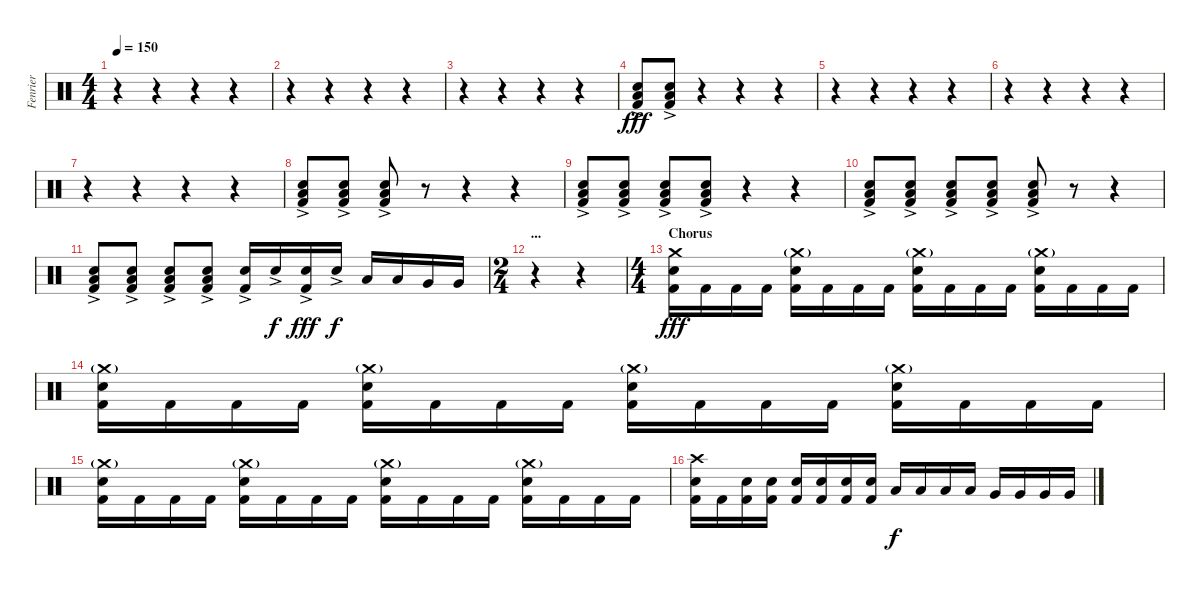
\track ("Fenrier" "Fenrier") {instrument percussion}
\staff {score}
\articulation defaults
\ts (4 4)
\tempo 150
\clef neutral
\ks c
r.4{dy fff} r.4 r.4 r.4 |
r.4 r.4 r.4 r.4 |
r.4 r.4 r.4 r.4 |
("Electric Snare (hit)"{ac} "Low Floor Tom (hit)"{ac} "Kick (hit) 2"{ac}).8 ("Electric Snare (hit)"{ac} "Low Floor Tom (hit)"{ac} "Kick (hit) 2"{ac}).8 r.4 r.4 r.4 |
r.4 r.4 r.4 r.4 |
r.4 r.4 r.4 r.4 |
r.4 r.4 r.4 r.4 |
("Electric Snare (hit)"{ac} "Low Floor Tom (hit)"{ac} "Kick (hit) 2"{ac}).8 ("Electric Snare (hit)"{ac} "Low Floor Tom (hit)"{ac} "Kick (hit) 2"{ac}).8 ("Electric Snare (hit)"{ac} "Low Floor Tom (hit)"{ac} "Kick (hit) 2"{ac}).8 r.8 r.4 r.4 |
("Electric Snare (hit)"{ac} "Low Floor Tom (hit)"{ac} "Kick (hit) 2"{ac}).8 ("Electric Snare (hit)"{ac} "Low Floor Tom (hit)"{ac} "Kick (hit) 2"{ac}).8 ("Electric Snare (hit)"{ac} "Low Floor Tom (hit)"{ac} "Kick (hit) 2"{ac}).8 ("Electric Snare (hit)"{ac} "Low Floor Tom (hit)"{ac} "Kick (hit) 2").8 r.4 r.4 |
("Electric Snare (hit)"{ac} "Low Floor Tom (hit)"{ac} "Kick (hit) 2"{ac}).8 ("Electric Snare (hit)"{ac} "Low Floor Tom (hit)"{ac} "Kick (hit) 2"{ac}).8 ("Electric Snare (hit)"{ac} "Low Floor Tom (hit)"{ac} "Kick (hit) 2"{ac}).8 ("Electric Snare (hit)"{ac} "Low Floor Tom (hit)"{ac} "Kick (hit) 2").8 ("Electric Snare (hit)"{ac} "Low Floor Tom (hit)"{ac} "Kick (hit) 2"{ac}).8 r.8 r.4 |
("Electric Snare (hit)"{ac} "Low Floor Tom (hit)"{ac} "Kick (hit) 2"{ac}).8 ("Electric Snare (hit)"{ac} "Low Floor Tom (hit)"{ac} "Kick (hit) 2"{ac}).8 ("Electric Snare (hit)"{ac} "Low Floor Tom (hit)"{ac} "Kick (hit) 2"{ac}).8 ("Electric Snare (hit)"{ac} "Low Floor Tom (hit)"{ac} "Kick (hit) 2").8 ("Electric Snare (hit)"{ac} "Kick (hit) 2"{ac}).16 "Electric Snare (hit)"{ac}.16{dy f} ("Electric Snare (hit)"{ac} "Kick (hit) 2"{ac}).16{dy fff} "Electric Snare (hit)"{ac}.16{dy f} "Low Tom (hit)".16 "Low Tom (hit)".16 "Very Low Tom (hit)".16 "Very Low Tom (hit)".16 |
\ts (2 4)
\section ("" "...")
r.4 r.4 |
\ts (4 4)
\section ("" "Chorus")
("Crash medium (hit)" "Electric Snare (hit)" "Kick (hit) 2").16{dy fff} "Kick (hit) 2".16 "Kick (hit) 2".16 "Kick (hit) 2".16 ("Crash medium (hit)"{g} "Electric Snare (hit)" "Kick (hit) 2").16 "Kick (hit) 2".16 "Kick (hit) 2".16 "Kick (hit) 2".16 ("Crash medium (hit)"{g} "Electric Snare (hit)" "Kick (hit) 2").16 "Kick (hit) 2".16 "Kick (hit) 2".16 "Kick (hit) 2".16 ("Crash medium (hit)"{g} "Electric Snare (hit)" "Kick (hit) 2").16 "Kick (hit) 2".16 "Kick (hit) 2".16 "Kick (hit) 2".16 |
("Crash medium (hit)"{g} "Electric Snare (hit)" "Kick (hit) 2").16 "Kick (hit) 2".16 "Kick (hit) 2".16 "Kick (hit) 2".16 ("Crash medium (hit)"{g} "Electric Snare (hit)" "Kick (hit) 2").16 "Kick (hit) 2".16 "Kick (hit) 2".16 "Kick (hit) 2".16 ("Crash medium (hit)"{g} "Electric Snare (hit)" "Kick (hit) 2").16 "Kick (hit) 2".16 "Kick (hit) 2".16 "Kick (hit) 2".16 ("Crash medium (hit)"{g} "Electric Snare (hit)" "Kick (hit) 2").16 "Kick (hit) 2".16 "Kick (hit) 2".16 "Kick (hit) 2".16 |
("Crash medium (hit)"{g} "Electric Snare (hit)" "Kick (hit) 2").16 "Kick (hit) 2".16 "Kick (hit) 2".16 "Kick (hit) 2".16 ("Crash medium (hit)"{g} "Electric Snare (hit)" "Kick (hit) 2").16 "Kick (hit) 2".16 "Kick (hit) 2".16 "Kick (hit) 2".16 ("Crash medium (hit)"{g} "Electric Snare (hit)" "Kick (hit) 2").16 "Kick (hit) 2".16 "Kick (hit) 2".16 "Kick (hit) 2".16 ("Crash medium (hit)"{g} "Electric Snare (hit)" "Kick (hit) 2").16 "Kick (hit) 2".16 "Kick (hit) 2".16 "Kick (hit) 2".16 |
("Crash high (hit)" "Electric Snare (hit)" "Kick (hit) 2").16 "Kick (hit) 2".16 ("Electric Snare (hit)" "Kick (hit) 2").16 ("Electric Snare (hit)" "Kick (hit) 2").16 ("Electric Snare (hit)" "Kick (hit) 2").16 ("Electric Snare (hit)" "Kick (hit) 2").16 ("Electric Snare (hit)" "Kick (hit) 2").16 ("Electric Snare (hit)" "Kick (hit) 2").16 "Low Tom (hit)".16{dy f} "Low Tom (hit)".16 "Low Tom (hit)".16 "Low Tom (hit)".16 "Very Low Tom (hit)".16 "Very Low Tom (hit)".16 "Very Low Tom (hit)".16 "Very Low Tom (hit)".16
